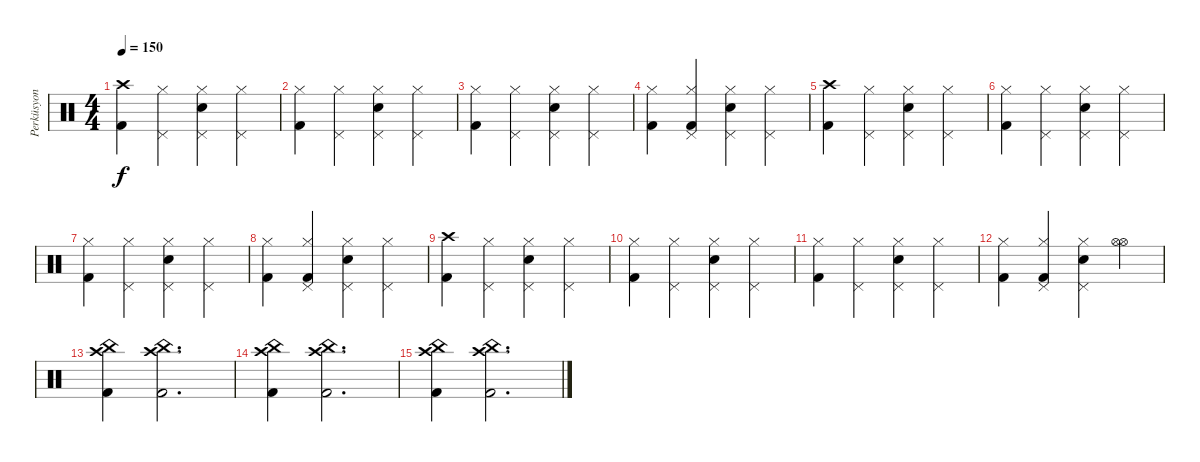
\track ("Perküsyon" "Perküsyon") {instrument percussion}
\staff {score}
\articulation defaults
\ts (4 4)
\tempo 150
\clef neutral
\ks c
("Crash high (hit)" "Kick (hit) 2").4{dy f} ("Hi-Hat (closed)" "Pedal Hi-Hat (hit)").4 ("Hi-Hat (closed)" "Pedal Hi-Hat (hit)" "Electric Snare (hit)").4 ("Hi-Hat (closed)" "Pedal Hi-Hat (hit)").4 |
("Hi-Hat (closed)" "Kick (hit) 2").4 ("Hi-Hat (closed)" "Pedal Hi-Hat (hit)").4 ("Hi-Hat (closed)" "Pedal Hi-Hat (hit)" "Electric Snare (hit)").4 ("Hi-Hat (closed)" "Pedal Hi-Hat (hit)").4 |
("Hi-Hat (closed)" "Kick (hit) 2").4 ("Hi-Hat (closed)" "Pedal Hi-Hat (hit)").4 ("Hi-Hat (closed)" "Pedal Hi-Hat (hit)" "Electric Snare (hit)").4 ("Hi-Hat (closed)" "Pedal Hi-Hat (hit)").4 |
("Hi-Hat (closed)" "Kick (hit) 2").4 ("Hi-Hat (closed)" "Pedal Hi-Hat (hit)" "Kick (hit) 2").4 ("Hi-Hat (closed)" "Pedal Hi-Hat (hit)" "Electric Snare (hit)").4 ("Hi-Hat (closed)" "Pedal Hi-Hat (hit)").4 |
("Crash high (hit)" "Kick (hit) 2").4 ("Hi-Hat (closed)" "Pedal Hi-Hat (hit)").4 ("Hi-Hat (closed)" "Pedal Hi-Hat (hit)" "Electric Snare (hit)").4 ("Hi-Hat (closed)" "Pedal Hi-Hat (hit)").4 |
("Hi-Hat (closed)" "Kick (hit) 2").4 ("Hi-Hat (closed)" "Pedal Hi-Hat (hit)").4 ("Hi-Hat (closed)" "Pedal Hi-Hat (hit)" "Electric Snare (hit)").4 ("Hi-Hat (closed)" "Pedal Hi-Hat (hit)").4 |
("Hi-Hat (closed)" "Kick (hit) 2").4 ("Hi-Hat (closed)" "Pedal Hi-Hat (hit)").4 ("Hi-Hat (closed)" "Pedal Hi-Hat (hit)" "Electric Snare (hit)").4 ("Hi-Hat (closed)" "Pedal Hi-Hat (hit)").4 |
("Hi-Hat (closed)" "Kick (hit) 2").4 ("Hi-Hat (closed)" "Pedal Hi-Hat (hit)" "Kick (hit) 2").4 ("Hi-Hat (closed)" "Pedal Hi-Hat (hit)" "Electric Snare (hit)").4 ("Hi-Hat (closed)" "Pedal Hi-Hat (hit)").4 |
("Crash high (hit)" "Kick (hit) 2").4 ("Hi-Hat (closed)" "Pedal Hi-Hat (hit)").4 ("Hi-Hat (closed)" "Pedal Hi-Hat (hit)" "Electric Snare (hit)").4 ("Hi-Hat (closed)" "Pedal Hi-Hat (hit)").4 |
("Hi-Hat (closed)" "Kick (hit) 2").4 ("Hi-Hat (closed)" "Pedal Hi-Hat (hit)").4 ("Hi-Hat (closed)" "Pedal Hi-Hat (hit)" "Electric Snare (hit)").4 ("Hi-Hat (closed)" "Pedal Hi-Hat (hit)").4 |
("Hi-Hat (closed)" "Kick (hit) 2").4 ("Hi-Hat (closed)" "Pedal Hi-Hat (hit)").4 ("Hi-Hat (closed)" "Pedal Hi-Hat (hit)" "Electric Snare (hit)").4 ("Hi-Hat (closed)" "Pedal Hi-Hat (hit)").4 |
("Hi-Hat (closed)" "Kick (hit) 2").4 ("Hi-Hat (closed)" "Pedal Hi-Hat (hit)" "Kick (hit) 2").4 ("Hi-Hat (closed)" "Pedal Hi-Hat (hit)" "Electric Snare (hit)").4 ("Hi-Hat (open)" "Hi-Hat (open)").4 |
("Crash high (hit)" "China (hit)" "Kick (hit) 2").4 ("Crash high (hit)" "China (hit)" "Kick (hit) 2").2{d} |
("Crash high (hit)" "China (hit)" "Kick (hit) 2").4 ("Crash high (hit)" "China (hit)" "Kick (hit) 2").2{d} |
("Crash high (hit)" "China (hit)" "Kick (hit) 2").4 ("Crash high (hit)" "China (hit)" "Kick (hit) 2").2{d}
